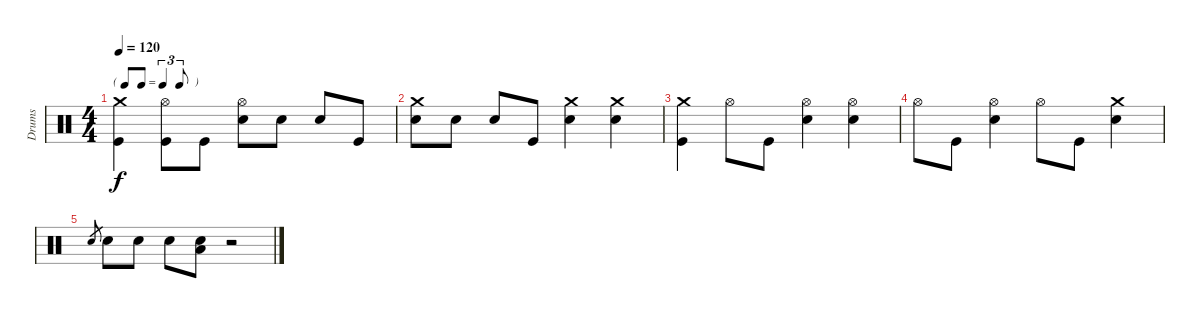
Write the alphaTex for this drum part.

\track ("Drums" "Drums") {instrument percussion}
\staff {score}
\articulation defaults
\ts (4 4)
\tf triplet8th
\tempo 120
\clef neutral
\ks c
("Kick (hit)" "Crash medium (hit)").4{dy f} ("Kick (hit)" "Hi-Hat (open)").8 "Kick (hit)".8 ("Electric Snare (hit)" "Hi-Hat (open)").8 "Electric Snare (hit)".8 "Electric Snare (hit)".8 "Kick (hit)".8 |
("Electric Snare (hit)" "Crash medium (hit)").8 "Electric Snare (hit)".8 "Electric Snare (hit)".8 "Kick (hit)".8 ("Electric Snare (hit)" "Crash medium (hit)").4 ("Electric Snare (hit)" "Crash medium (hit)").4 |
("Kick (hit)" "Crash medium (hit)").4 "Hi-Hat (open)".8 "Kick (hit)".8 ("Electric Snare (hit)" "Hi-Hat (open)").4 ("Electric Snare (hit)" "Hi-Hat (open)").4 |
"Hi-Hat (open)".8 "Kick (hit)".8 ("Electric Snare (hit)" "Hi-Hat (open)").4 "Hi-Hat (open)".8 "Kick (hit)".8 ("Electric Snare (hit)" "Crash medium (hit)").4 |
"Electric Snare (hit)".8{gr} "Electric Snare (hit)".8 "Electric Snare (hit)".8 "Electric Snare (hit)".8 ("Electric Snare (hit)" "Low Floor Tom (hit)").8 r.2
